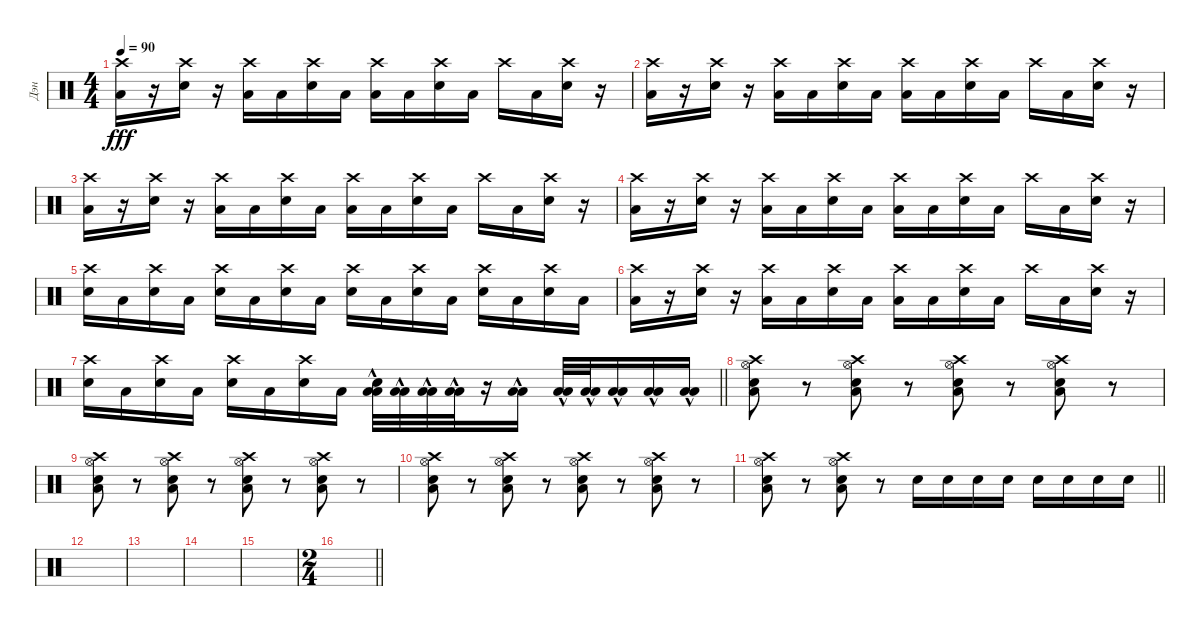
\track ("Дэн" "Дэн") {instrument percussion}
\staff {score}
\articulation defaults
\ts (4 4)
\tempo 90
\clef neutral
\ks c
("Low Floor Tom (hit)" "Crash high (hit)").16{dy fff} r.16 ("Crash high (hit)" "Electric Snare (hit)").16 r.16 ("Low Floor Tom (hit)" "Crash high (hit)").16 "Low Floor Tom (hit)".16 ("Crash high (hit)" "Electric Snare (hit)").16 "Low Floor Tom (hit)".16 ("Crash high (hit)" "Low Floor Tom (hit)").16 "Low Floor Tom (hit)".16 ("Crash high (hit)" "Electric Snare (hit)").16 "Low Floor Tom (hit)".16 "Crash high (hit)".16 "Low Floor Tom (hit)".16 ("Crash high (hit)" "Electric Snare (hit)").16 r.16 |
("Low Floor Tom (hit)" "Crash high (hit)").16 r.16 ("Crash high (hit)" "Electric Snare (hit)").16 r.16 ("Low Floor Tom (hit)" "Crash high (hit)").16 "Low Floor Tom (hit)".16 ("Crash high (hit)" "Electric Snare (hit)").16 "Low Floor Tom (hit)".16 ("Crash high (hit)" "Low Floor Tom (hit)").16 "Low Floor Tom (hit)".16 ("Crash high (hit)" "Electric Snare (hit)").16 "Low Floor Tom (hit)".16 "Crash high (hit)".16 "Low Floor Tom (hit)".16 ("Crash high (hit)" "Electric Snare (hit)").16 r.16 |
("Low Floor Tom (hit)" "Crash high (hit)").16 r.16 ("Crash high (hit)" "Electric Snare (hit)").16 r.16 ("Low Floor Tom (hit)" "Crash high (hit)").16 "Low Floor Tom (hit)".16 ("Crash high (hit)" "Electric Snare (hit)").16 "Low Floor Tom (hit)".16 ("Crash high (hit)" "Low Floor Tom (hit)").16 "Low Floor Tom (hit)".16 ("Crash high (hit)" "Electric Snare (hit)").16 "Low Floor Tom (hit)".16 "Crash high (hit)".16 "Low Floor Tom (hit)".16 ("Crash high (hit)" "Electric Snare (hit)").16 r.16 |
("Low Floor Tom (hit)" "Crash high (hit)").16 r.16 ("Crash high (hit)" "Electric Snare (hit)").16 r.16 ("Low Floor Tom (hit)" "Crash high (hit)").16 "Low Floor Tom (hit)".16 ("Crash high (hit)" "Electric Snare (hit)").16 "Low Floor Tom (hit)".16 ("Crash high (hit)" "Low Floor Tom (hit)").16 "Low Floor Tom (hit)".16 ("Crash high (hit)" "Electric Snare (hit)").16 "Low Floor Tom (hit)".16 "Crash high (hit)".16 "Low Floor Tom (hit)".16 ("Crash high (hit)" "Electric Snare (hit)").16 r.16 |
("Crash high (hit)" "Electric Snare (hit)").16 "Low Floor Tom (hit)".16 ("Crash high (hit)" "Electric Snare (hit)").16 "Low Floor Tom (hit)".16 ("Crash high (hit)" "Electric Snare (hit)").16 "Low Floor Tom (hit)".16 ("Crash high (hit)" "Electric Snare (hit)").16 "Low Floor Tom (hit)".16 ("Crash high (hit)" "Electric Snare (hit)").16 "Low Floor Tom (hit)".16 ("Crash high (hit)" "Electric Snare (hit)").16 "Low Floor Tom (hit)".16 ("Crash high (hit)" "Electric Snare (hit)").16 "Low Floor Tom (hit)".16 ("Crash high (hit)" "Electric Snare (hit)").16 "Low Floor Tom (hit)".16 |
("Low Floor Tom (hit)" "Crash high (hit)").16 r.16 ("Crash high (hit)" "Electric Snare (hit)").16 r.16 ("Low Floor Tom (hit)" "Crash high (hit)").16 "Low Floor Tom (hit)".16 ("Crash high (hit)" "Electric Snare (hit)").16 "Low Floor Tom (hit)".16 ("Crash high (hit)" "Low Floor Tom (hit)").16 "Low Floor Tom (hit)".16 ("Crash high (hit)" "Electric Snare (hit)").16 "Low Floor Tom (hit)".16 "Crash high (hit)".16 "Low Floor Tom (hit)".16 ("Crash high (hit)" "Electric Snare (hit)").16 r.16 |
\barLineRight lightlight
("Crash high (hit)" "Electric Snare (hit)").16 "Low Floor Tom (hit)".16 ("Crash high (hit)" "Electric Snare (hit)").16 "Low Floor Tom (hit)".16 ("Crash high (hit)" "Electric Snare (hit)").16 "Low Floor Tom (hit)".16 ("Crash high (hit)" "Electric Snare (hit)").16 "Low Floor Tom (hit)".16 ("Low Floor Tom (hit)"{hac} "Electric Snare (hit)"{hac} "Low Floor Tom (hit)"{hac}).32 ("Low Floor Tom (hit)"{hac} "Low Floor Tom (hit)"{hac}).32 ("Low Floor Tom (hit)"{hac} "Low Floor Tom (hit)"{hac}).32 ("Low Floor Tom (hit)"{hac} "Low Floor Tom (hit)"{hac}).32 r.16 ("Low Floor Tom (hit)"{hac} "Low Floor Tom (hit)"{hac}).16 ("Low Floor Tom (hit)"{hac} "Low Floor Tom (hit)"{hac}).32 ("Low Floor Tom (hit)"{hac} "Low Floor Tom (hit)"{hac}).32 ("Low Floor Tom (hit)"{hac} "Low Floor Tom (hit)"{hac}).16 ("Low Floor Tom (hit)"{hac} "Low Floor Tom (hit)"{hac}).16 ("Low Floor Tom (hit)"{hac} "Low Floor Tom (hit)"{hac}).16 |
("Low Floor Tom (hit)" "Electric Snare (hit)" "Hi-Hat (open)" "Crash high (hit)").8 r.8 ("Low Floor Tom (hit)" "Electric Snare (hit)" "Hi-Hat (open)" "Crash high (hit)").8 r.8 ("Low Floor Tom (hit)" "Electric Snare (hit)" "Hi-Hat (open)" "Crash high (hit)").8 r.8 ("Low Floor Tom (hit)" "Electric Snare (hit)" "Hi-Hat (open)" "Crash high (hit)").8 r.8 |
("Low Floor Tom (hit)" "Electric Snare (hit)" "Hi-Hat (open)" "Crash high (hit)").8 r.8 ("Low Floor Tom (hit)" "Electric Snare (hit)" "Hi-Hat (open)" "Crash high (hit)").8 r.8 ("Low Floor Tom (hit)" "Electric Snare (hit)" "Hi-Hat (open)" "Crash high (hit)").8 r.8 ("Low Floor Tom (hit)" "Electric Snare (hit)" "Hi-Hat (open)" "Crash high (hit)").8 r.8 |
("Low Floor Tom (hit)" "Electric Snare (hit)" "Hi-Hat (open)" "Crash high (hit)").8 r.8 ("Low Floor Tom (hit)" "Electric Snare (hit)" "Hi-Hat (open)" "Crash high (hit)").8 r.8 ("Low Floor Tom (hit)" "Electric Snare (hit)" "Hi-Hat (open)" "Crash high (hit)").8 r.8 ("Low Floor Tom (hit)" "Electric Snare (hit)" "Hi-Hat (open)" "Crash high (hit)").8 r.8 |
\barLineRight lightlight
("Low Floor Tom (hit)" "Electric Snare (hit)" "Hi-Hat (open)" "Crash high (hit)").8 r.8 ("Low Floor Tom (hit)" "Electric Snare (hit)" "Hi-Hat (open)" "Crash high (hit)").8 r.8 "Electric Snare (hit)".16 "Electric Snare (hit)".16 "Electric Snare (hit)".16 "Electric Snare (hit)".16 "Electric Snare (hit)".16 "Electric Snare (hit)".16 "Electric Snare (hit)".16 "Electric Snare (hit)".16 |
|
|
|
|
\ts (2 4)
\barLineRight lightlight
